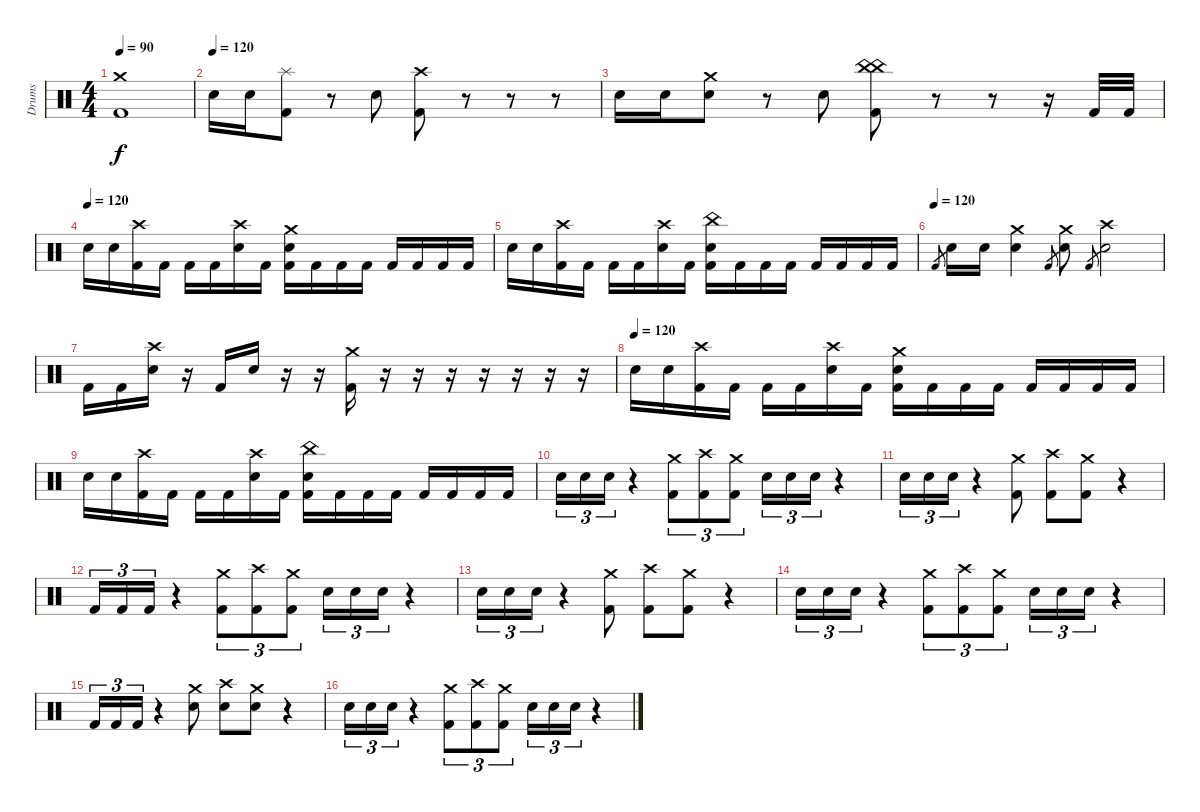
\track ("Drums" "Drums") {instrument percussion}
\staff {score}
\articulation defaults
\ts (4 4)
\tempo 90
\clef neutral
\ks c
("Crash medium (hit)" "Kick (hit) 2").1{dy f} |
\tempo (120)
"Electric Snare (hit)".16 "Electric Snare (hit)".16 ("Splash (hit)" "Kick (hit) 2").8 r.8 "Electric Snare (hit)".8 ("Crash high (hit)" "Kick (hit) 2").8 r.8 r.8 r.8 |
"Electric Snare (hit)".16 "Electric Snare (hit)".16 ("Crash medium (hit)" "Electric Snare (hit)").8 r.8 "Electric Snare (hit)".8 ("China (hit)" "China (hit)" "Kick (hit) 2").8 r.8 r.8 r.16 "Kick (hit) 2".32 "Kick (hit) 2".32 |
\tempo (120)
"Electric Snare (hit)".16 "Electric Snare (hit)".16 ("Crash high (hit)" "Kick (hit) 2").16 "Kick (hit) 2".16 "Kick (hit) 2".16 "Kick (hit) 2".16 ("Crash high (hit)" "Electric Snare (hit)").16 "Kick (hit) 2".16 ("Crash medium (hit)" "Electric Snare (hit)" "Kick (hit) 2").16 "Kick (hit) 2".16 "Kick (hit) 2".16 "Kick (hit) 2".16 "Kick (hit) 2".16 "Kick (hit) 2".16 "Kick (hit) 2".16 "Kick (hit) 2".16 |
"Electric Snare (hit)".16 "Electric Snare (hit)".16 ("Crash high (hit)" "Kick (hit) 2").16 "Kick (hit) 2".16 "Kick (hit) 2".16 "Kick (hit) 2".16 ("Crash high (hit)" "Electric Snare (hit)").16 "Kick (hit) 2".16 ("China (hit)" "Electric Snare (hit)" "Kick (hit) 2").16 "Kick (hit) 2".16 "Kick (hit) 2".16 "Kick (hit) 2".16 "Kick (hit) 2".16 "Kick (hit) 2".16 "Kick (hit) 2".16 "Kick (hit) 2".16 |
\tempo (120)
"Kick (hit) 2".8{gr} "Electric Snare (hit)".16 "Electric Snare (hit)".16 ("Crash medium (hit)" "Electric Snare (hit)").4 "Kick (hit) 2".8{gr} ("Crash medium (hit)" "Electric Snare (hit)").8 "Kick (hit) 2".8{gr} ("Crash high (hit)" "Electric Snare (hit)").2 |
"Kick (hit) 2".16 "Kick (hit) 2".16 ("Crash high (hit)" "Electric Snare (hit)").16 r.16 "Kick (hit) 2".16 "Electric Snare (hit)".16 r.16 r.16 ("Crash medium (hit)" "Kick (hit) 2").16 r.16 r.16 r.16 r.16 r.16 r.16 r.16 |
\tempo (120)
"Electric Snare (hit)".16 "Electric Snare (hit)".16 ("Crash high (hit)" "Kick (hit) 2").16 "Kick (hit) 2".16 "Kick (hit) 2".16 "Kick (hit) 2".16 ("Crash high (hit)" "Electric Snare (hit)").16 "Kick (hit) 2".16 ("Crash medium (hit)" "Electric Snare (hit)" "Kick (hit) 2").16 "Kick (hit) 2".16 "Kick (hit) 2".16 "Kick (hit) 2".16 "Kick (hit) 2".16 "Kick (hit) 2".16 "Kick (hit) 2".16 "Kick (hit) 2".16 |
"Electric Snare (hit)".16 "Electric Snare (hit)".16 ("Crash high (hit)" "Kick (hit) 2").16 "Kick (hit) 2".16 "Kick (hit) 2".16 "Kick (hit) 2".16 ("Crash high (hit)" "Electric Snare (hit)").16 "Kick (hit) 2".16 ("China (hit)" "Electric Snare (hit)" "Kick (hit) 2").16 "Kick (hit) 2".16 "Kick (hit) 2".16 "Kick (hit) 2".16 "Kick (hit) 2".16 "Kick (hit) 2".16 "Kick (hit) 2".16 "Kick (hit) 2".16 |
"Electric Snare (hit)".16{tu (3 2)} "Electric Snare (hit)".16{tu (3 2)} "Electric Snare (hit)".16{tu (3 2)} r.4 ("Crash medium (hit)" "Kick (hit) 2").8{tu (3 2)} ("Crash high (hit)" "Kick (hit) 2").8{tu (3 2)} ("Crash medium (hit)" "Kick (hit) 2").8{tu (3 2)} "Electric Snare (hit)".16{tu (3 2)} "Electric Snare (hit)".16{tu (3 2)} "Electric Snare (hit)".16{tu (3 2)} r.4 |
"Electric Snare (hit)".16{tu (3 2)} "Electric Snare (hit)".16{tu (3 2)} "Electric Snare (hit)".16{tu (3 2)} r.4 ("Crash medium (hit)" "Kick (hit) 2").8 ("Crash high (hit)" "Kick (hit) 2").8 ("Crash medium (hit)" "Kick (hit) 2").8 r.4 |
"Kick (hit) 2".16{tu (3 2)} "Kick (hit) 2".16{tu (3 2)} "Kick (hit) 2".16{tu (3 2)} r.4 ("Crash medium (hit)" "Kick (hit) 2").8{tu (3 2)} ("Crash high (hit)" "Kick (hit) 2").8{tu (3 2)} ("Crash medium (hit)" "Kick (hit) 2").8{tu (3 2)} "Electric Snare (hit)".16{tu (3 2)} "Electric Snare (hit)".16{tu (3 2)} "Electric Snare (hit)".16{tu (3 2)} r.4 |
"Electric Snare (hit)".16{tu (3 2)} "Electric Snare (hit)".16{tu (3 2)} "Electric Snare (hit)".16{tu (3 2)} r.4 ("Crash medium (hit)" "Kick (hit) 2").8 ("Crash high (hit)" "Kick (hit) 2").8 ("Crash medium (hit)" "Kick (hit) 2").8 r.4 |
"Electric Snare (hit)".16{tu (3 2)} "Electric Snare (hit)".16{tu (3 2)} "Electric Snare (hit)".16{tu (3 2)} r.4 ("Crash medium (hit)" "Kick (hit) 2").8{tu (3 2)} ("Crash high (hit)" "Kick (hit) 2").8{tu (3 2)} ("Crash medium (hit)" "Kick (hit) 2").8{tu (3 2)} "Electric Snare (hit)".16{tu (3 2)} "Electric Snare (hit)".16{tu (3 2)} "Electric Snare (hit)".16{tu (3 2)} r.4 |
"Kick (hit) 2".16{tu (3 2)} "Kick (hit) 2".16{tu (3 2)} "Kick (hit) 2".16{tu (3 2)} r.4 ("Crash medium (hit)" "Electric Snare (hit)").8 ("Crash high (hit)" "Electric Snare (hit)").8 ("Crash medium (hit)" "Electric Snare (hit)").8 r.4 |
"Electric Snare (hit)".16{tu (3 2)} "Electric Snare (hit)".16{tu (3 2)} "Electric Snare (hit)".16{tu (3 2)} r.4 ("Crash medium (hit)" "Kick (hit) 2").8{tu (3 2)} ("Crash high (hit)" "Kick (hit) 2").8{tu (3 2)} ("Crash medium (hit)" "Kick (hit) 2").8{tu (3 2)} "Electric Snare (hit)".16{tu (3 2)} "Electric Snare (hit)".16{tu (3 2)} "Electric Snare (hit)".16{tu (3 2)} r.4
